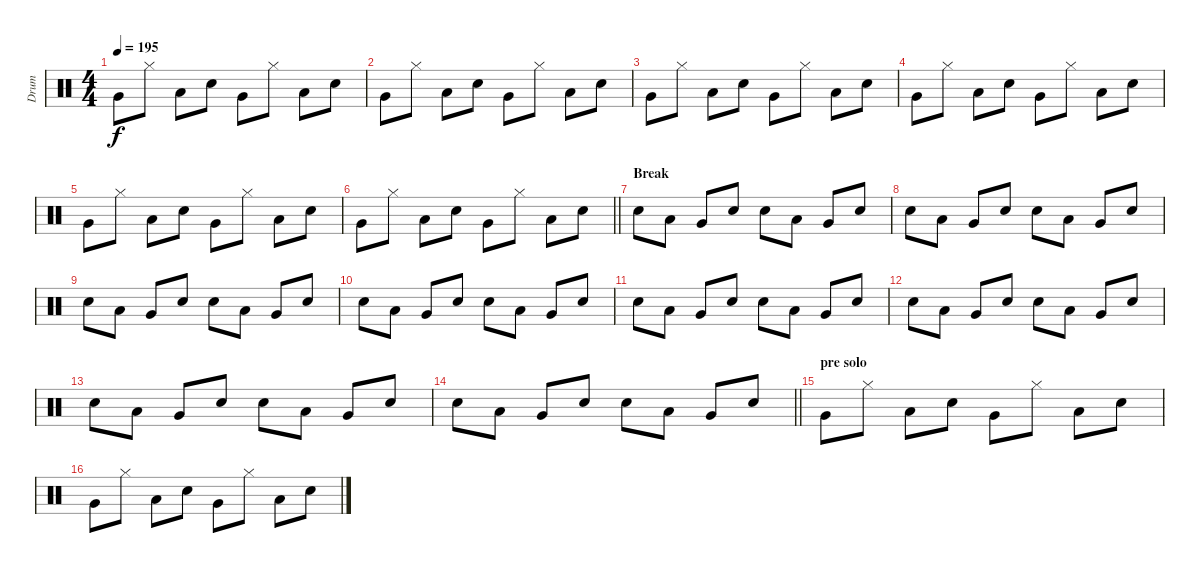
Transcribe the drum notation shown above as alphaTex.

\track ("Drum" "Drum") {instrument percussion}
\staff {score}
\articulation defaults
\ts (4 4)
\tempo 195
\clef neutral
\ks c "Very Low Tom (hit)".8{dy f} "Hi-Hat (closed)".8 "Low Floor Tom (hit)".8 "Electric Snare (hit)".8 "Very Low Tom (hit)".8 "Hi-Hat (closed)".8 "Low Floor Tom (hit)".8 "Electric Snare (hit)".8
|
"Very Low Tom (hit)".8 "Hi-Hat (closed)".8 "Low Floor Tom (hit)".8 "Electric Snare (hit)".8 "Very Low Tom (hit)".8 "Hi-Hat (closed)".8 "Low Floor Tom (hit)".8 "Electric Snare (hit)".8 |
"Very Low Tom (hit)".8 "Hi-Hat (closed)".8 "Low Floor Tom (hit)".8 "Electric Snare (hit)".8 "Very Low Tom (hit)".8 "Hi-Hat (closed)".8 "Low Floor Tom (hit)".8 "Electric Snare (hit)".8 |
"Very Low Tom (hit)".8 "Hi-Hat (closed)".8 "Low Floor Tom (hit)".8 "Electric Snare (hit)".8 "Very Low Tom (hit)".8 "Hi-Hat (closed)".8 "Low Floor Tom (hit)".8 "Electric Snare (hit)".8 |
"Very Low Tom (hit)".8 "Hi-Hat (closed)".8 "Low Floor Tom (hit)".8 "Electric Snare (hit)".8 "Very Low Tom (hit)".8 "Hi-Hat (closed)".8 "Low Floor Tom (hit)".8 "Electric Snare (hit)".8 |
\barLineRight lightlight "Very Low Tom (hit)".8 "Hi-Hat (closed)".8 "Low Floor Tom (hit)".8 "Electric Snare (hit)".8 "Very Low Tom (hit)".8 "Hi-Hat (closed)".8 "Low Floor Tom (hit)".8 "Electric Snare (hit)".8
|
\section ("" "Break")
"Electric Snare (hit)".8 "Low Floor Tom (hit)".8 "Very Low Tom (hit)".8 "Electric Snare (hit)".8 "Electric Snare (hit)".8 "Low Floor Tom (hit)".8 "Very Low Tom (hit)".8 "Electric Snare (hit)".8 |
"Electric Snare (hit)".8 "Low Floor Tom (hit)".8 "Very Low Tom (hit)".8 "Electric Snare (hit)".8 "Electric Snare (hit)".8 "Low Floor Tom (hit)".8 "Very Low Tom (hit)".8 "Electric Snare (hit)".8 |
"Electric Snare (hit)".8 "Low Floor Tom (hit)".8 "Very Low Tom (hit)".8 "Electric Snare (hit)".8 "Electric Snare (hit)".8 "Low Floor Tom (hit)".8 "Very Low Tom (hit)".8 "Electric Snare (hit)".8 |
"Electric Snare (hit)".8 "Low Floor Tom (hit)".8 "Very Low Tom (hit)".8 "Electric Snare (hit)".8 "Electric Snare (hit)".8 "Low Floor Tom (hit)".8 "Very Low Tom (hit)".8 "Electric Snare (hit)".8 |
"Electric Snare (hit)".8 "Low Floor Tom (hit)".8 "Very Low Tom (hit)".8 "Electric Snare (hit)".8 "Electric Snare (hit)".8 "Low Floor Tom (hit)".8 "Very Low Tom (hit)".8 "Electric Snare (hit)".8 |
"Electric Snare (hit)".8 "Low Floor Tom (hit)".8 "Very Low Tom (hit)".8 "Electric Snare (hit)".8 "Electric Snare (hit)".8 "Low Floor Tom (hit)".8 "Very Low Tom (hit)".8 "Electric Snare (hit)".8 |
"Electric Snare (hit)".8 "Low Floor Tom (hit)".8 "Very Low Tom (hit)".8 "Electric Snare (hit)".8 "Electric Snare (hit)".8 "Low Floor Tom (hit)".8 "Very Low Tom (hit)".8 "Electric Snare (hit)".8 |
\barLineRight lightlight "Electric Snare (hit)".8 "Low Floor Tom (hit)".8 "Very Low Tom (hit)".8 "Electric Snare (hit)".8 "Electric Snare (hit)".8 "Low Floor Tom (hit)".8 "Very Low Tom (hit)".8 "Electric Snare (hit)".8
|
\section ("" "pre solo")
"Very Low Tom (hit)".8 "Hi-Hat (closed)".8 "Low Floor Tom (hit)".8 "Electric Snare (hit)".8 "Very Low Tom (hit)".8 "Hi-Hat (closed)".8 "Low Floor Tom (hit)".8 "Electric Snare (hit)".8 |
"Very Low Tom (hit)".8 "Hi-Hat (closed)".8 "Low Floor Tom (hit)".8 "Electric Snare (hit)".8 "Very Low Tom (hit)".8 "Hi-Hat (closed)".8 "Low Floor Tom (hit)".8 "Electric Snare (hit)".8
